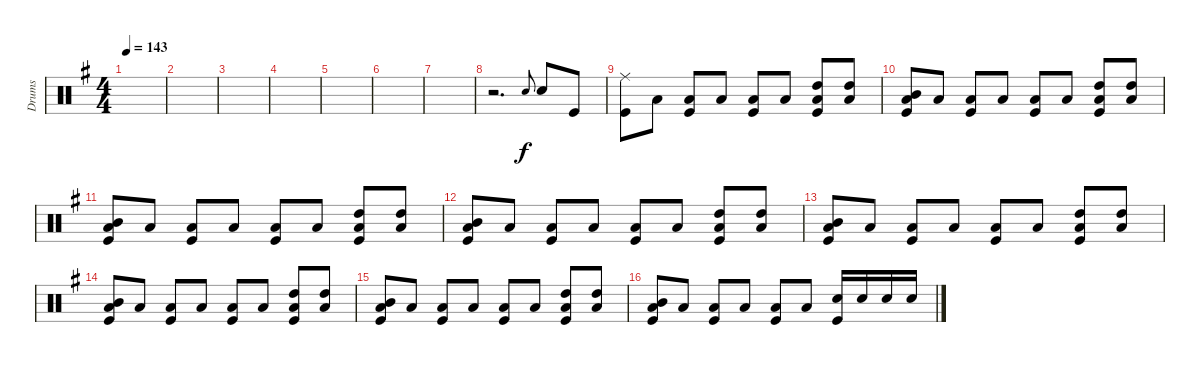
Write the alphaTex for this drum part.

\track ("Drums" "Drums") {instrument percussion}
\staff {score}
\articulation defaults
\ts (4 4)
\tempo 143
\clef neutral
\ks eminor
|
|
|
|
|
|
|
r.2{d} "Snare (hit) 2".8{gr onbeat} "Snare (hit) 2".8 "Kick (hit)".8 |
("Kick (hit)" "Ride (middle)").8 "Low Tom (hit)".8 ("Kick (hit)" "Low Tom (hit)").8 "Low Tom (hit)".8 ("Kick (hit)" "Low Tom (hit)").8 "Low Tom (hit)".8 ("High Tom (hit)" "Kick (hit)" "Low Tom (hit)").8 ("High Tom (hit)" "Low Tom (hit)").8 |
("Mid Tom (hit)" "Kick (hit)" "Low Tom (hit)").8 "Low Tom (hit)".8 ("Kick (hit)" "Low Tom (hit)").8 "Low Tom (hit)".8 ("Kick (hit)" "Low Tom (hit)").8 "Low Tom (hit)".8 ("High Tom (hit)" "Kick (hit)" "Low Tom (hit)").8 ("High Tom (hit)" "Low Tom (hit)").8 |
("Mid Tom (hit)" "Kick (hit)" "Low Tom (hit)").8 "Low Tom (hit)".8 ("Kick (hit)" "Low Tom (hit)").8 "Low Tom (hit)".8 ("Kick (hit)" "Low Tom (hit)").8 "Low Tom (hit)".8 ("High Tom (hit)" "Kick (hit)" "Low Tom (hit)").8 ("High Tom (hit)" "Low Tom (hit)").8 |
("Mid Tom (hit)" "Kick (hit)" "Low Tom (hit)").8 "Low Tom (hit)".8 ("Kick (hit)" "Low Tom (hit)").8 "Low Tom (hit)".8 ("Kick (hit)" "Low Tom (hit)").8 "Low Tom (hit)".8 ("High Tom (hit)" "Kick (hit)" "Low Tom (hit)").8 ("High Tom (hit)" "Low Tom (hit)").8 |
("Mid Tom (hit)" "Kick (hit)" "Low Tom (hit)").8 "Low Tom (hit)".8 ("Kick (hit)" "Low Tom (hit)").8 "Low Tom (hit)".8 ("Kick (hit)" "Low Tom (hit)").8 "Low Tom (hit)".8 ("High Tom (hit)" "Kick (hit)" "Low Tom (hit)").8 ("High Tom (hit)" "Low Tom (hit)").8 |
("Mid Tom (hit)" "Kick (hit)" "Low Tom (hit)").8 "Low Tom (hit)".8 ("Kick (hit)" "Low Tom (hit)").8 "Low Tom (hit)".8 ("Kick (hit)" "Low Tom (hit)").8 "Low Tom (hit)".8 ("High Tom (hit)" "Kick (hit)" "Low Tom (hit)").8 ("High Tom (hit)" "Low Tom (hit)").8 |
("Mid Tom (hit)" "Kick (hit)" "Low Tom (hit)").8 "Low Tom (hit)".8 ("Kick (hit)" "Low Tom (hit)").8 "Low Tom (hit)".8 ("Kick (hit)" "Low Tom (hit)").8 "Low Tom (hit)".8 ("High Tom (hit)" "Kick (hit)" "Low Tom (hit)").8 ("High Tom (hit)" "Low Tom (hit)").8 |
("Mid Tom (hit)" "Kick (hit)" "Low Tom (hit)").8 "Low Tom (hit)".8 ("Kick (hit)" "Low Tom (hit)").8 "Low Tom (hit)".8 ("Kick (hit)" "Low Tom (hit)").8 "Low Tom (hit)".8 ("Snare (hit) 2" "Kick (hit)").16 "Snare (hit) 2".16 "Snare (hit) 2".16 "Snare (hit) 2".16
